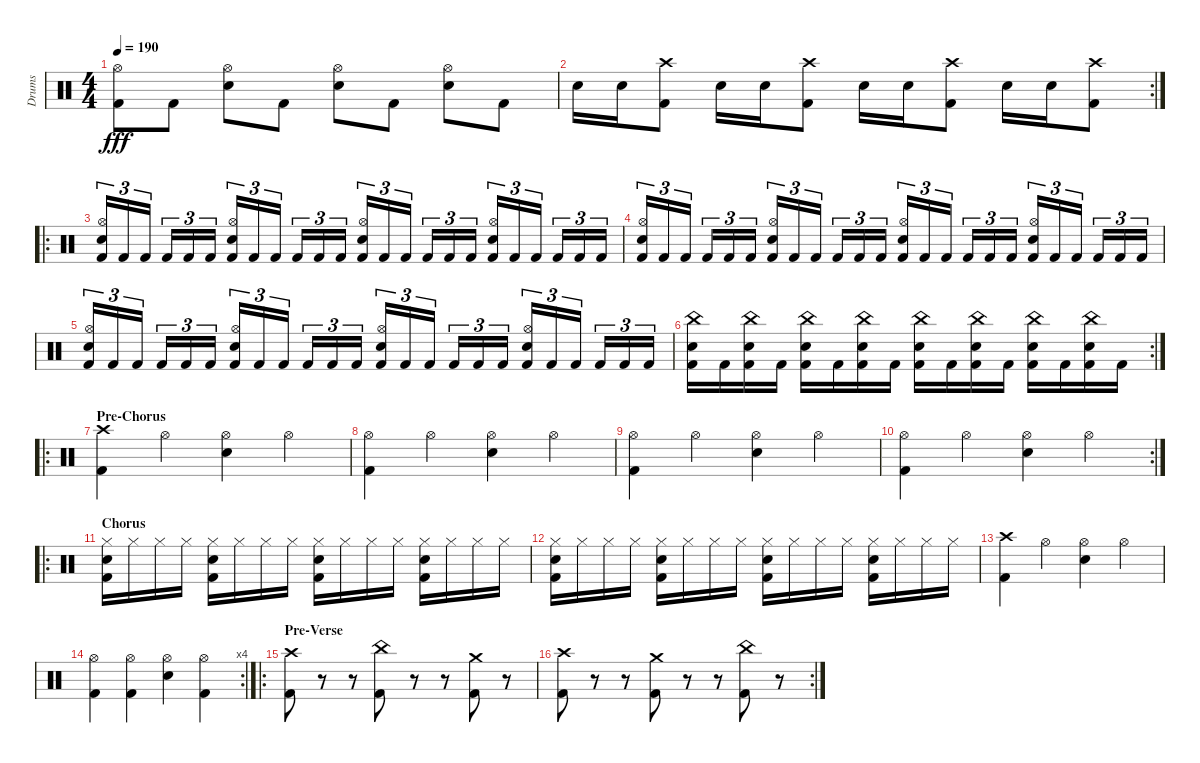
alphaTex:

\track ("Drums" "Drums") {instrument percussion}
\staff {score}
\articulation defaults
\ts (4 4)
\tempo 190
\clef neutral
\ks c
("Kick (hit) 2" "Hi-Hat (open)").8{dy fff} "Kick (hit) 2".8 ("Electric Snare (hit)" "Hi-Hat (open)").8 "Kick (hit) 2".8 ("Electric Snare (hit)" "Hi-Hat (open)").8 "Kick (hit) 2".8 ("Electric Snare (hit)" "Hi-Hat (open)").8 "Kick (hit) 2".8 |
\rc 2 "Electric Snare (hit)".16 "Electric Snare (hit)".16
("Crash high (hit)" "Kick (hit) 2").8 "Electric Snare (hit)".16 "Electric Snare (hit)".16 ("Crash high (hit)" "Kick (hit) 2").8 "Electric Snare (hit)".16 "Electric Snare (hit)".16 ("Crash high (hit)" "Kick (hit) 2").8 "Electric Snare (hit)".16 "Electric Snare (hit)".16 ("Crash high (hit)" "Kick (hit) 2").8 |
\ro
("Hi-Hat (open)" "Kick (hit) 2" "Electric Snare (hit)").16{tu (3 2)} "Kick (hit) 2".16{tu (3 2)} "Kick (hit) 2".16{tu (3 2)} "Kick (hit) 2".16{tu (3 2)} "Kick (hit) 2".16{tu (3 2)} "Kick (hit) 2".16{tu (3 2)} ("Hi-Hat (open)" "Kick (hit) 2" "Electric Snare (hit)").16{tu (3 2)} "Kick (hit) 2".16{tu (3 2)} "Kick (hit) 2".16{tu (3 2)} "Kick (hit) 2".16{tu (3 2)} "Kick (hit) 2".16{tu (3 2)} "Kick (hit) 2".16{tu (3 2)} ("Hi-Hat (open)" "Kick (hit) 2" "Electric Snare (hit)").16{tu (3 2)} "Kick (hit) 2".16{tu (3 2)} "Kick (hit) 2".16{tu (3 2)} "Kick (hit) 2".16{tu (3 2)} "Kick (hit) 2".16{tu (3 2)} "Kick (hit) 2".16{tu (3 2)} ("Hi-Hat (open)" "Kick (hit) 2" "Electric Snare (hit)").16{tu (3 2)} "Kick (hit) 2".16{tu (3 2)} "Kick (hit) 2".16{tu (3 2)} "Kick (hit) 2".16{tu (3 2)} "Kick (hit) 2".16{tu (3 2)} "Kick (hit) 2".16{tu (3 2)} |
("Hi-Hat (open)" "Kick (hit) 2" "Electric Snare (hit)").16{tu (3 2)} "Kick (hit) 2".16{tu (3 2)} "Kick (hit) 2".16{tu (3 2)} "Kick (hit) 2".16{tu (3 2)} "Kick (hit) 2".16{tu (3 2)} "Kick (hit) 2".16{tu (3 2)} ("Hi-Hat (open)" "Kick (hit) 2" "Electric Snare (hit)").16{tu (3 2)} "Kick (hit) 2".16{tu (3 2)} "Kick (hit) 2".16{tu (3 2)} "Kick (hit) 2".16{tu (3 2)} "Kick (hit) 2".16{tu (3 2)} "Kick (hit) 2".16{tu (3 2)} ("Hi-Hat (open)" "Kick (hit) 2" "Electric Snare (hit)").16{tu (3 2)} "Kick (hit) 2".16{tu (3 2)} "Kick (hit) 2".16{tu (3 2)} "Kick (hit) 2".16{tu (3 2)} "Kick (hit) 2".16{tu (3 2)} "Kick (hit) 2".16{tu (3 2)} ("Hi-Hat (open)" "Kick (hit) 2" "Electric Snare (hit)").16{tu (3 2)} "Kick (hit) 2".16{tu (3 2)} "Kick (hit) 2".16{tu (3 2)} "Kick (hit) 2".16{tu (3 2)} "Kick (hit) 2".16{tu (3 2)} "Kick (hit) 2".16{tu (3 2)} |
("Hi-Hat (open)" "Kick (hit) 2" "Electric Snare (hit)").16{tu (3 2)} "Kick (hit) 2".16{tu (3 2)} "Kick (hit) 2".16{tu (3 2)} "Kick (hit) 2".16{tu (3 2)} "Kick (hit) 2".16{tu (3 2)} "Kick (hit) 2".16{tu (3 2)} ("Hi-Hat (open)" "Kick (hit) 2" "Electric Snare (hit)").16{tu (3 2)} "Kick (hit) 2".16{tu (3 2)} "Kick (hit) 2".16{tu (3 2)} "Kick (hit) 2".16{tu (3 2)} "Kick (hit) 2".16{tu (3 2)} "Kick (hit) 2".16{tu (3 2)} ("Hi-Hat (open)" "Kick (hit) 2" "Electric Snare (hit)").16{tu (3 2)} "Kick (hit) 2".16{tu (3 2)} "Kick (hit) 2".16{tu (3 2)} "Kick (hit) 2".16{tu (3 2)} "Kick (hit) 2".16{tu (3 2)} "Kick (hit) 2".16{tu (3 2)} ("Hi-Hat (open)" "Kick (hit) 2" "Electric Snare (hit)").16{tu (3 2)} "Kick (hit) 2".16{tu (3 2)} "Kick (hit) 2".16{tu (3 2)} "Kick (hit) 2".16{tu (3 2)} "Kick (hit) 2".16{tu (3 2)} "Kick (hit) 2".16{tu (3 2)} |
\rc 2
("Kick (hit) 2" "China (hit)" "Electric Snare (hit)").16 "Kick (hit) 2".16 ("Kick (hit) 2" "China (hit)" "Electric Snare (hit)").16 "Kick (hit) 2".16 ("Kick (hit) 2" "China (hit)" "Electric Snare (hit)").16 "Kick (hit) 2".16 ("Kick (hit) 2" "China (hit)" "Electric Snare (hit)").16 "Kick (hit) 2".16 ("Kick (hit) 2" "China (hit)" "Electric Snare (hit)").16 "Kick (hit) 2".16 ("Kick (hit) 2" "China (hit)" "Electric Snare (hit)").16 "Kick (hit) 2".16 ("Kick (hit) 2" "China (hit)" "Electric Snare (hit)").16 "Kick (hit) 2".16 ("Kick (hit) 2" "China (hit)" "Electric Snare (hit)").16 "Kick (hit) 2".16 |
\ro
\section ("" "Pre-Chorus")
("Crash high (hit)" "Kick (hit) 2").4 "Hi-Hat (open)".4 ("Hi-Hat (open)" "Electric Snare (hit)").4 "Hi-Hat (open)".4 |
("Hi-Hat (open)" "Kick (hit) 2").4 "Hi-Hat (open)".4 ("Hi-Hat (open)" "Electric Snare (hit)").4 "Hi-Hat (open)".4 |
("Hi-Hat (open)" "Kick (hit) 2").4 "Hi-Hat (open)".4 ("Hi-Hat (open)" "Electric Snare (hit)").4 "Hi-Hat (open)".4 |
\rc 2
("Hi-Hat (open)" "Kick (hit) 2").4 "Hi-Hat (open)".4 ("Hi-Hat (open)" "Electric Snare (hit)").4 "Hi-Hat (open)".4 |
\ro
\section ("" "Chorus")
("Hi-Hat (closed)" "Kick (hit) 2" "Electric Snare (hit)").16 "Hi-Hat (closed)".16 "Hi-Hat (closed)".16 "Hi-Hat (closed)".16 ("Hi-Hat (closed)" "Kick (hit) 2" "Electric Snare (hit)").16 "Hi-Hat (closed)".16 "Hi-Hat (closed)".16 "Hi-Hat (closed)".16 ("Hi-Hat (closed)" "Kick (hit) 2" "Electric Snare (hit)").16 "Hi-Hat (closed)".16 "Hi-Hat (closed)".16 "Hi-Hat (closed)".16 ("Hi-Hat (closed)" "Kick (hit) 2" "Electric Snare (hit)").16 "Hi-Hat (closed)".16 "Hi-Hat (closed)".16 "Hi-Hat (closed)".16 |
("Hi-Hat (closed)" "Kick (hit) 2" "Electric Snare (hit)").16 "Hi-Hat (closed)".16 "Hi-Hat (closed)".16 "Hi-Hat (closed)".16 ("Hi-Hat (closed)" "Kick (hit) 2" "Electric Snare (hit)").16 "Hi-Hat (closed)".16 "Hi-Hat (closed)".16 "Hi-Hat (closed)".16 ("Hi-Hat (closed)" "Kick (hit) 2" "Electric Snare (hit)").16 "Hi-Hat (closed)".16 "Hi-Hat (closed)".16 "Hi-Hat (closed)".16 ("Hi-Hat (closed)" "Kick (hit) 2" "Electric Snare (hit)").16 "Hi-Hat (closed)".16 "Hi-Hat (closed)".16 "Hi-Hat (closed)".16 |
("Crash high (hit)" "Kick (hit) 2").4 "Hi-Hat (open)".4 ("Hi-Hat (open)" "Electric Snare (hit)").4 "Hi-Hat (open)".4 |
\rc 4
("Hi-Hat (open)" "Kick (hit) 2").4 ("Hi-Hat (open)" "Kick (hit) 2").4 ("Hi-Hat (open)" "Electric Snare (hit)").4 ("Hi-Hat (open)" "Kick (hit) 2").4 |
\ro
\section ("" "Pre-Verse")
("Kick (hit) 2" "Crash high (hit)").8 r.8 r.8 ("Kick (hit) 2" "China (hit)").8 r.8 r.8 ("Kick (hit) 2" "Crash medium (hit)").8 r.8 |
\rc 2
("Kick (hit) 2" "Crash high (hit)").8 r.8 r.8 ("Kick (hit) 2" "Crash medium (hit)").8 r.8 r.8 ("Kick (hit) 2" "China (hit)").8 r.8
